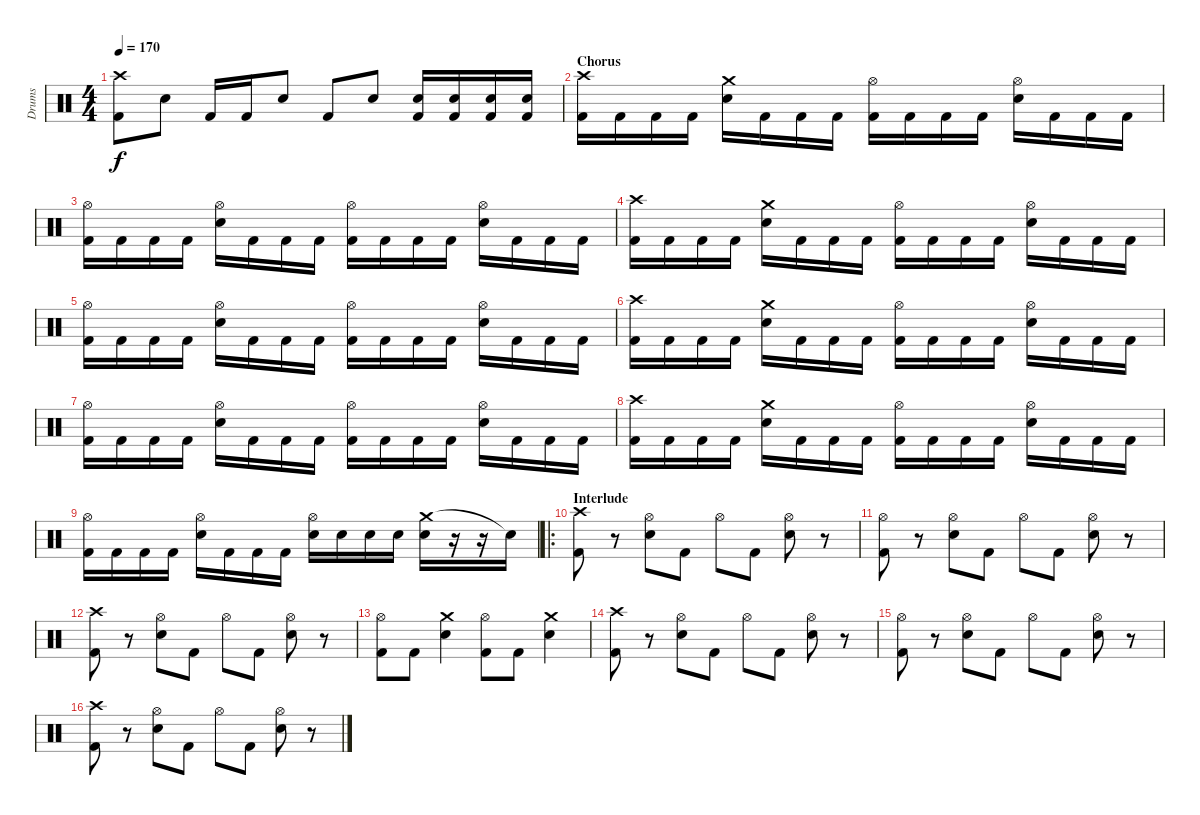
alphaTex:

\track ("Drums" "Drums") {instrument percussion}
\staff {score}
\articulation defaults
\ts (4 4)
\tempo 170
\clef neutral
\ks c
("Crash high (hit)" "Kick (hit) 2").8{dy f} "Snare (hit) 2".8 "Kick (hit) 2".16 "Kick (hit) 2".16 "Snare (hit) 2".8 "Kick (hit) 2".8 "Snare (hit) 2".8 ("Snare (hit) 2" "Kick (hit) 2").16 ("Snare (hit) 2" "Kick (hit) 2").16 ("Snare (hit) 2" "Kick (hit) 2").16 ("Snare (hit) 2" "Kick (hit) 2").16 |
\section ("" "Chorus")
("Crash high (hit)" "Kick (hit) 2").16 "Kick (hit) 2".16 "Kick (hit) 2".16 "Kick (hit) 2".16 ("Crash medium (hit)" "Snare (hit) 2").16 "Kick (hit) 2".16 "Kick (hit) 2".16 "Kick (hit) 2".16 ("Hi-Hat (open)" "Kick (hit) 2").16 "Kick (hit) 2".16 "Kick (hit) 2".16 "Kick (hit) 2".16 ("Hi-Hat (open)" "Snare (hit) 2").16 "Kick (hit) 2".16 "Kick (hit) 2".16 "Kick (hit) 2".16 |
("Hi-Hat (open)" "Kick (hit) 2").16 "Kick (hit) 2".16 "Kick (hit) 2".16 "Kick (hit) 2".16 ("Hi-Hat (open)" "Snare (hit) 2").16 "Kick (hit) 2".16 "Kick (hit) 2".16 "Kick (hit) 2".16 ("Hi-Hat (open)" "Kick (hit) 2").16 "Kick (hit) 2".16 "Kick (hit) 2".16 "Kick (hit) 2".16 ("Hi-Hat (open)" "Snare (hit) 2").16 "Kick (hit) 2".16 "Kick (hit) 2".16 "Kick (hit) 2".16 |
("Crash high (hit)" "Kick (hit) 2").16 "Kick (hit) 2".16 "Kick (hit) 2".16 "Kick (hit) 2".16 ("Crash medium (hit)" "Snare (hit) 2").16 "Kick (hit) 2".16 "Kick (hit) 2".16 "Kick (hit) 2".16 ("Hi-Hat (open)" "Kick (hit) 2").16 "Kick (hit) 2".16 "Kick (hit) 2".16 "Kick (hit) 2".16 ("Hi-Hat (open)" "Snare (hit) 2").16 "Kick (hit) 2".16 "Kick (hit) 2".16 "Kick (hit) 2".16 |
("Hi-Hat (open)" "Kick (hit) 2").16 "Kick (hit) 2".16 "Kick (hit) 2".16 "Kick (hit) 2".16 ("Hi-Hat (open)" "Snare (hit) 2").16 "Kick (hit) 2".16 "Kick (hit) 2".16 "Kick (hit) 2".16 ("Hi-Hat (open)" "Kick (hit) 2").16 "Kick (hit) 2".16 "Kick (hit) 2".16 "Kick (hit) 2".16 ("Hi-Hat (open)" "Snare (hit) 2").16 "Kick (hit) 2".16 "Kick (hit) 2".16 "Kick (hit) 2".16 |
("Crash high (hit)" "Kick (hit) 2").16 "Kick (hit) 2".16 "Kick (hit) 2".16 "Kick (hit) 2".16 ("Crash medium (hit)" "Snare (hit) 2").16 "Kick (hit) 2".16 "Kick (hit) 2".16 "Kick (hit) 2".16 ("Hi-Hat (open)" "Kick (hit) 2").16 "Kick (hit) 2".16 "Kick (hit) 2".16 "Kick (hit) 2".16 ("Hi-Hat (open)" "Snare (hit) 2").16 "Kick (hit) 2".16 "Kick (hit) 2".16 "Kick (hit) 2".16 |
("Hi-Hat (open)" "Kick (hit) 2").16 "Kick (hit) 2".16 "Kick (hit) 2".16 "Kick (hit) 2".16 ("Hi-Hat (open)" "Snare (hit) 2").16 "Kick (hit) 2".16 "Kick (hit) 2".16 "Kick (hit) 2".16 ("Hi-Hat (open)" "Kick (hit) 2").16 "Kick (hit) 2".16 "Kick (hit) 2".16 "Kick (hit) 2".16 ("Hi-Hat (open)" "Snare (hit) 2").16 "Kick (hit) 2".16 "Kick (hit) 2".16 "Kick (hit) 2".16 |
("Crash high (hit)" "Kick (hit) 2").16 "Kick (hit) 2".16 "Kick (hit) 2".16 "Kick (hit) 2".16 ("Crash medium (hit)" "Snare (hit) 2").16 "Kick (hit) 2".16 "Kick (hit) 2".16 "Kick (hit) 2".16 ("Hi-Hat (open)" "Kick (hit) 2").16 "Kick (hit) 2".16 "Kick (hit) 2".16 "Kick (hit) 2".16 ("Hi-Hat (open)" "Snare (hit) 2").16 "Kick (hit) 2".16 "Kick (hit) 2".16 "Kick (hit) 2".16 |
("Hi-Hat (open)" "Kick (hit) 2").16 "Kick (hit) 2".16 "Kick (hit) 2".16 "Kick (hit) 2".16 ("Hi-Hat (open)" "Snare (hit) 2").16 "Kick (hit) 2".16 "Kick (hit) 2".16 "Kick (hit) 2".16 ("Hi-Hat (open)" "Snare (hit) 2").16 "Snare (hit) 2".16 "Snare (hit) 2".16 "Snare (hit) 2".16 ("Crash medium (hit)" "Snare (hit) 2").16 r.16 r.16 "Snare (hit) 2"{t}.16 |
\ro
\section ("" "Interlude")
("Crash high (hit)" "Kick (hit) 2").8 r.8 ("Hi-Hat (open)" "Snare (hit) 2").8 "Kick (hit) 2".8 "Hi-Hat (open)".8 "Kick (hit) 2".8 ("Hi-Hat (open)" "Snare (hit) 2").8 r.8 |
("Hi-Hat (open)" "Kick (hit) 2").8 r.8 ("Hi-Hat (open)" "Snare (hit) 2").8 "Kick (hit) 2".8 "Hi-Hat (open)".8 "Kick (hit) 2".8 ("Hi-Hat (open)" "Snare (hit) 2").8 r.8 |
("Crash high (hit)" "Kick (hit) 2").8 r.8 ("Hi-Hat (open)" "Snare (hit) 2").8 "Kick (hit) 2".8 "Hi-Hat (open)".8 "Kick (hit) 2".8 ("Hi-Hat (open)" "Snare (hit) 2").8 r.8 |
("Hi-Hat (open)" "Kick (hit) 2").8 "Kick (hit) 2".8 ("Crash medium (hit)" "Snare (hit) 2").4 ("Hi-Hat (open)" "Kick (hit) 2").8 "Kick (hit) 2".8 ("Crash medium (hit)" "Snare (hit) 2").4 |
("Crash high (hit)" "Kick (hit) 2").8 r.8 ("Hi-Hat (open)" "Snare (hit) 2").8 "Kick (hit) 2".8 "Hi-Hat (open)".8 "Kick (hit) 2".8 ("Hi-Hat (open)" "Snare (hit) 2").8 r.8 |
("Hi-Hat (open)" "Kick (hit) 2").8 r.8 ("Hi-Hat (open)" "Snare (hit) 2").8 "Kick (hit) 2".8 "Hi-Hat (open)".8 "Kick (hit) 2".8 ("Hi-Hat (open)" "Snare (hit) 2").8 r.8 |
("Crash high (hit)" "Kick (hit) 2").8 r.8 ("Hi-Hat (open)" "Snare (hit) 2").8 "Kick (hit) 2".8 "Hi-Hat (open)".8 "Kick (hit) 2".8 ("Hi-Hat (open)" "Snare (hit) 2").8 r.8
